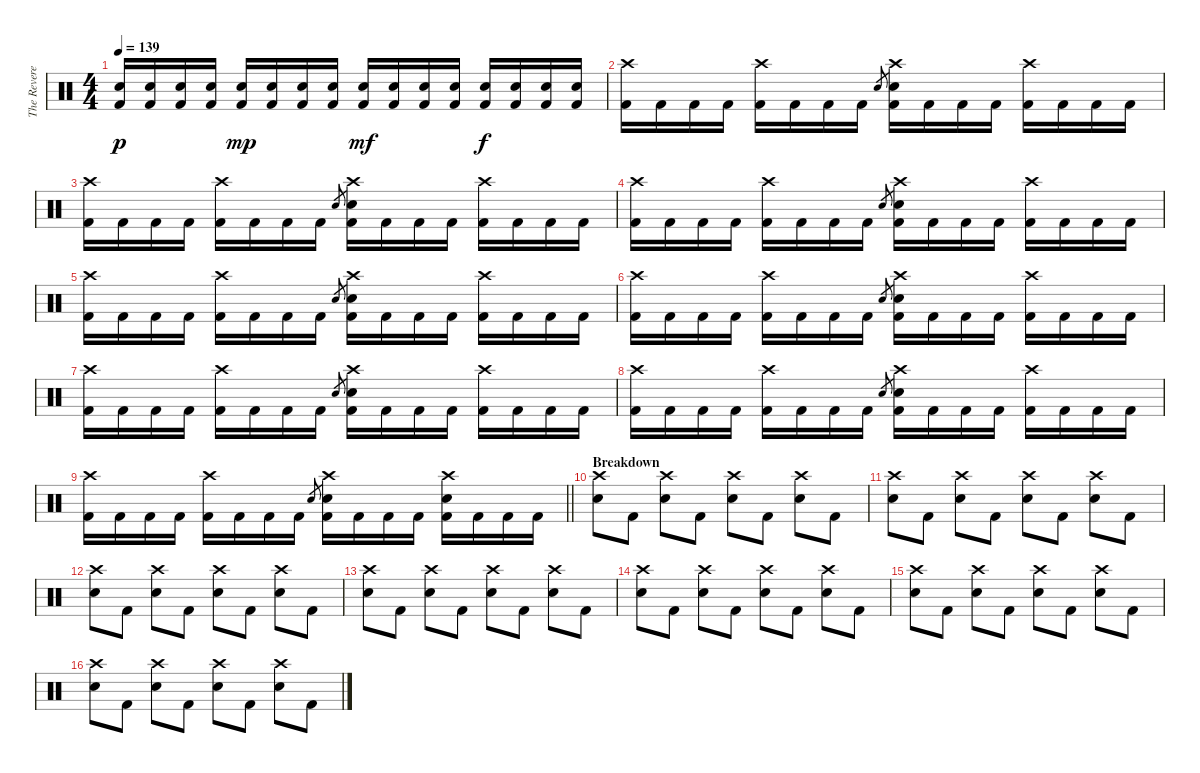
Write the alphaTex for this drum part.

\track ("The Reverend" "The Revere") {instrument percussion}
\staff {score}
\articulation defaults
\ts (4 4)
\tempo 139
\clef neutral
\ks c
("Electric Snare (hit)" "Kick (hit) 2").16{dy p} ("Electric Snare (hit)" "Kick (hit) 2").16 ("Electric Snare (hit)" "Kick (hit) 2").16 ("Electric Snare (hit)" "Kick (hit) 2").16 ("Electric Snare (hit)" "Kick (hit) 2").16{dy mp} ("Electric Snare (hit)" "Kick (hit) 2").16 ("Electric Snare (hit)" "Kick (hit) 2").16 ("Electric Snare (hit)" "Kick (hit) 2").16 ("Electric Snare (hit)" "Kick (hit) 2").16{dy mf} ("Electric Snare (hit)" "Kick (hit) 2").16 ("Electric Snare (hit)" "Kick (hit) 2").16 ("Electric Snare (hit)" "Kick (hit) 2").16 ("Electric Snare (hit)" "Kick (hit) 2").16{dy f} ("Electric Snare (hit)" "Kick (hit) 2").16 ("Electric Snare (hit)" "Kick (hit) 2").16 ("Electric Snare (hit)" "Kick (hit) 2").16 |
("Crash high (hit)" "Kick (hit) 2").16 "Kick (hit) 2".16 "Kick (hit) 2".16 "Kick (hit) 2".16 ("Crash high (hit)" "Kick (hit) 2").16 "Kick (hit) 2".16 "Kick (hit) 2".16 "Kick (hit) 2".16 "Electric Snare (hit)".8{gr} ("Crash high (hit)" "Electric Snare (hit)" "Kick (hit) 2").16 "Kick (hit) 2".16 "Kick (hit) 2".16 "Kick (hit) 2".16 ("Crash high (hit)" "Kick (hit) 2").16 "Kick (hit) 2".16 "Kick (hit) 2".16 "Kick (hit) 2".16 |
("Crash high (hit)" "Kick (hit) 2").16 "Kick (hit) 2".16 "Kick (hit) 2".16 "Kick (hit) 2".16 ("Crash high (hit)" "Kick (hit) 2").16 "Kick (hit) 2".16 "Kick (hit) 2".16 "Kick (hit) 2".16 "Electric Snare (hit)".8{gr} ("Crash high (hit)" "Electric Snare (hit)" "Kick (hit) 2").16 "Kick (hit) 2".16 "Kick (hit) 2".16 "Kick (hit) 2".16 ("Crash high (hit)" "Kick (hit) 2").16 "Kick (hit) 2".16 "Kick (hit) 2".16 "Kick (hit) 2".16 |
("Crash high (hit)" "Kick (hit) 2").16 "Kick (hit) 2".16 "Kick (hit) 2".16 "Kick (hit) 2".16 ("Crash high (hit)" "Kick (hit) 2").16 "Kick (hit) 2".16 "Kick (hit) 2".16 "Kick (hit) 2".16 "Electric Snare (hit)".8{gr} ("Crash high (hit)" "Electric Snare (hit)" "Kick (hit) 2").16 "Kick (hit) 2".16 "Kick (hit) 2".16 "Kick (hit) 2".16 ("Crash high (hit)" "Kick (hit) 2").16 "Kick (hit) 2".16 "Kick (hit) 2".16 "Kick (hit) 2".16 |
("Crash high (hit)" "Kick (hit) 2").16 "Kick (hit) 2".16 "Kick (hit) 2".16 "Kick (hit) 2".16 ("Crash high (hit)" "Kick (hit) 2").16 "Kick (hit) 2".16 "Kick (hit) 2".16 "Kick (hit) 2".16 "Electric Snare (hit)".8{gr} ("Crash high (hit)" "Electric Snare (hit)" "Kick (hit) 2").16 "Kick (hit) 2".16 "Kick (hit) 2".16 "Kick (hit) 2".16 ("Crash high (hit)" "Kick (hit) 2").16 "Kick (hit) 2".16 "Kick (hit) 2".16 "Kick (hit) 2".16 |
("Crash high (hit)" "Kick (hit) 2").16 "Kick (hit) 2".16 "Kick (hit) 2".16 "Kick (hit) 2".16 ("Crash high (hit)" "Kick (hit) 2").16 "Kick (hit) 2".16 "Kick (hit) 2".16 "Kick (hit) 2".16 "Electric Snare (hit)".8{gr} ("Crash high (hit)" "Electric Snare (hit)" "Kick (hit) 2").16 "Kick (hit) 2".16 "Kick (hit) 2".16 "Kick (hit) 2".16 ("Crash high (hit)" "Kick (hit) 2").16 "Kick (hit) 2".16 "Kick (hit) 2".16 "Kick (hit) 2".16 |
("Crash high (hit)" "Kick (hit) 2").16 "Kick (hit) 2".16 "Kick (hit) 2".16 "Kick (hit) 2".16 ("Crash high (hit)" "Kick (hit) 2").16 "Kick (hit) 2".16 "Kick (hit) 2".16 "Kick (hit) 2".16 "Electric Snare (hit)".8{gr} ("Crash high (hit)" "Electric Snare (hit)" "Kick (hit) 2").16 "Kick (hit) 2".16 "Kick (hit) 2".16 "Kick (hit) 2".16 ("Crash high (hit)" "Kick (hit) 2").16 "Kick (hit) 2".16 "Kick (hit) 2".16 "Kick (hit) 2".16 |
("Crash high (hit)" "Kick (hit) 2").16 "Kick (hit) 2".16 "Kick (hit) 2".16 "Kick (hit) 2".16 ("Crash high (hit)" "Kick (hit) 2").16 "Kick (hit) 2".16 "Kick (hit) 2".16 "Kick (hit) 2".16 "Electric Snare (hit)".8{gr} ("Crash high (hit)" "Electric Snare (hit)" "Kick (hit) 2").16 "Kick (hit) 2".16 "Kick (hit) 2".16 "Kick (hit) 2".16 ("Crash high (hit)" "Kick (hit) 2").16 "Kick (hit) 2".16 "Kick (hit) 2".16 "Kick (hit) 2".16 |
\barLineRight lightlight
("Crash high (hit)" "Kick (hit) 2").16 "Kick (hit) 2".16 "Kick (hit) 2".16 "Kick (hit) 2".16 ("Crash high (hit)" "Kick (hit) 2").16 "Kick (hit) 2".16 "Kick (hit) 2".16 "Kick (hit) 2".16 "Electric Snare (hit)".8{gr} ("Crash high (hit)" "Electric Snare (hit)" "Kick (hit) 2").16 "Kick (hit) 2".16 "Kick (hit) 2".16 "Kick (hit) 2".16 ("Crash high (hit)" "Electric Snare (hit)" "Kick (hit) 2").16 "Kick (hit) 2".16 "Kick (hit) 2".16 "Kick (hit) 2".16 |
\section ("" "Breakdown")
("Crash high (hit)" "Electric Snare (hit)").8 "Kick (hit) 2".8 ("Crash high (hit)" "Electric Snare (hit)").8 "Kick (hit) 2".8 ("Crash high (hit)" "Electric Snare (hit)").8 "Kick (hit) 2".8 ("Crash high (hit)" "Electric Snare (hit)").8 "Kick (hit) 2".8 |
("Crash high (hit)" "Electric Snare (hit)").8 "Kick (hit) 2".8 ("Crash high (hit)" "Electric Snare (hit)").8 "Kick (hit) 2".8 ("Crash high (hit)" "Electric Snare (hit)").8 "Kick (hit) 2".8 ("Crash high (hit)" "Electric Snare (hit)").8 "Kick (hit) 2".8 |
("Crash high (hit)" "Electric Snare (hit)").8 "Kick (hit) 2".8 ("Crash high (hit)" "Electric Snare (hit)").8 "Kick (hit) 2".8 ("Crash high (hit)" "Electric Snare (hit)").8 "Kick (hit) 2".8 ("Crash high (hit)" "Electric Snare (hit)").8 "Kick (hit) 2".8 |
("Crash high (hit)" "Electric Snare (hit)").8 "Kick (hit) 2".8 ("Crash high (hit)" "Electric Snare (hit)").8 "Kick (hit) 2".8 ("Crash high (hit)" "Electric Snare (hit)").8 "Kick (hit) 2".8 ("Crash high (hit)" "Electric Snare (hit)").8 "Kick (hit) 2".8 |
("Crash high (hit)" "Electric Snare (hit)").8 "Kick (hit) 2".8 ("Crash high (hit)" "Electric Snare (hit)").8 "Kick (hit) 2".8 ("Crash high (hit)" "Electric Snare (hit)").8 "Kick (hit) 2".8 ("Crash high (hit)" "Electric Snare (hit)").8 "Kick (hit) 2".8 |
("Crash high (hit)" "Electric Snare (hit)").8 "Kick (hit) 2".8 ("Crash high (hit)" "Electric Snare (hit)").8 "Kick (hit) 2".8 ("Crash high (hit)" "Electric Snare (hit)").8 "Kick (hit) 2".8 ("Crash high (hit)" "Electric Snare (hit)").8 "Kick (hit) 2".8 |
("Crash high (hit)" "Electric Snare (hit)").8 "Kick (hit) 2".8 ("Crash high (hit)" "Electric Snare (hit)").8 "Kick (hit) 2".8 ("Crash high (hit)" "Electric Snare (hit)").8 "Kick (hit) 2".8 ("Crash high (hit)" "Electric Snare (hit)").8 "Kick (hit) 2".8
